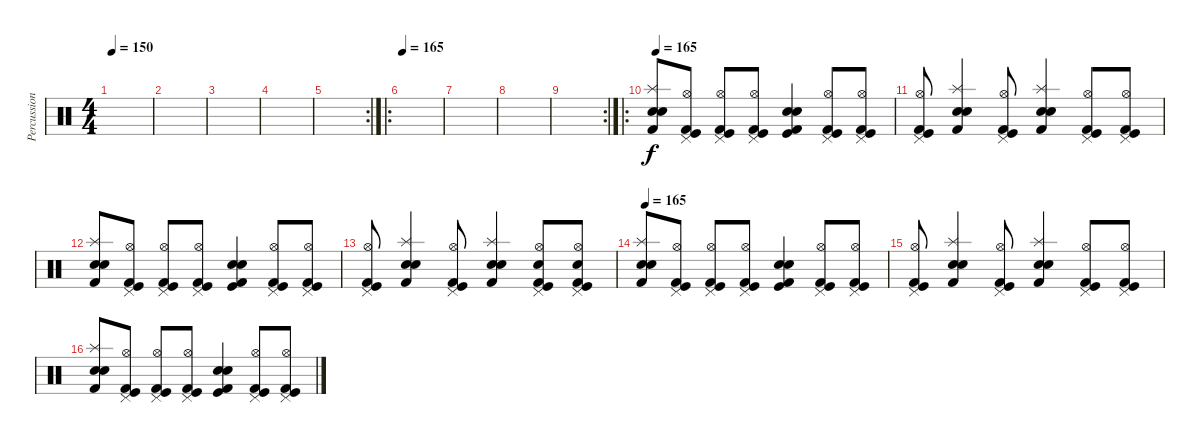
\track ("Percussions" "Percussion") {instrument percussion}
\staff {score}
\articulation defaults
\ts (4 4)
\tempo 150
\clef neutral
\ks c
|
|
|
|
\rc 2
|
\ro
\tempo 165
|
|
|
\rc 2
|
\ro
\tempo 165
("Kick (hit) 2" "Splash (hit)" "Snare (hit) 2" "Electric Snare (hit)").8 ("Hi-Hat (open)" "Pedal Hi-Hat (hit)" "Kick (hit)" "Kick (hit) 2").8 ("Hi-Hat (open)" "Pedal Hi-Hat (hit)" "Kick (hit)" "Kick (hit) 2").8 ("Hi-Hat (open)" "Pedal Hi-Hat (hit)" "Kick (hit)" "Kick (hit) 2").8 ("Kick (hit)" "Electric Snare (hit)" "Snare (hit) 2" "Kick (hit) 2").4 ("Hi-Hat (open)" "Pedal Hi-Hat (hit)" "Kick (hit)" "Kick (hit) 2").8 ("Hi-Hat (open)" "Pedal Hi-Hat (hit)" "Kick (hit) 2" "Kick (hit)").8 |
("Hi-Hat (open)" "Pedal Hi-Hat (hit)" "Kick (hit) 2" "Kick (hit)").8 ("Kick (hit) 2" "Splash (hit)" "Snare (hit) 2" "Electric Snare (hit)").4 ("Hi-Hat (open)" "Pedal Hi-Hat (hit)" "Kick (hit) 2" "Kick (hit)").8 ("Kick (hit) 2" "Splash (hit)" "Snare (hit) 2" "Electric Snare (hit)").4 ("Hi-Hat (open)" "Pedal Hi-Hat (hit)" "Kick (hit) 2" "Kick (hit)").8 ("Hi-Hat (open)" "Pedal Hi-Hat (hit)" "Kick (hit) 2" "Kick (hit)").8 |
("Kick (hit) 2" "Splash (hit)" "Snare (hit) 2" "Electric Snare (hit)").8 ("Hi-Hat (open)" "Pedal Hi-Hat (hit)" "Kick (hit)" "Kick (hit) 2").8 ("Hi-Hat (open)" "Pedal Hi-Hat (hit)" "Kick (hit)" "Kick (hit) 2").8 ("Hi-Hat (open)" "Pedal Hi-Hat (hit)" "Kick (hit)" "Kick (hit) 2").8 ("Kick (hit)" "Electric Snare (hit)" "Snare (hit) 2" "Kick (hit) 2").4 ("Hi-Hat (open)" "Pedal Hi-Hat (hit)" "Kick (hit)" "Kick (hit) 2").8 ("Hi-Hat (open)" "Pedal Hi-Hat (hit)" "Kick (hit) 2" "Kick (hit)").8 |
("Hi-Hat (open)" "Pedal Hi-Hat (hit)" "Kick (hit) 2" "Kick (hit)").8 ("Kick (hit) 2" "Splash (hit)" "Snare (hit) 2" "Electric Snare (hit)").4 ("Hi-Hat (open)" "Pedal Hi-Hat (hit)" "Kick (hit) 2" "Kick (hit)").8 ("Kick (hit) 2" "Splash (hit)" "Snare (hit) 2" "Electric Snare (hit)").4 ("Hi-Hat (open)" "Pedal Hi-Hat (hit)" "Kick (hit) 2" "Kick (hit)" "Electric Snare (hit)").8 ("Hi-Hat (open)" "Pedal Hi-Hat (hit)" "Kick (hit) 2" "Kick (hit)" "Electric Snare (hit)").8 |
\tempo 165
("Kick (hit) 2" "Splash (hit)" "Snare (hit) 2" "Electric Snare (hit)").8 ("Hi-Hat (open)" "Pedal Hi-Hat (hit)" "Kick (hit)" "Kick (hit) 2").8 ("Hi-Hat (open)" "Pedal Hi-Hat (hit)" "Kick (hit)" "Kick (hit) 2").8 ("Hi-Hat (open)" "Pedal Hi-Hat (hit)" "Kick (hit)" "Kick (hit) 2").8 ("Kick (hit)" "Electric Snare (hit)" "Snare (hit) 2" "Kick (hit) 2").4 ("Hi-Hat (open)" "Pedal Hi-Hat (hit)" "Kick (hit)" "Kick (hit) 2").8 ("Hi-Hat (open)" "Pedal Hi-Hat (hit)" "Kick (hit) 2" "Kick (hit)").8 |
("Hi-Hat (open)" "Pedal Hi-Hat (hit)" "Kick (hit) 2" "Kick (hit)").8 ("Kick (hit) 2" "Splash (hit)" "Snare (hit) 2" "Electric Snare (hit)").4 ("Hi-Hat (open)" "Pedal Hi-Hat (hit)" "Kick (hit) 2" "Kick (hit)").8 ("Kick (hit) 2" "Splash (hit)" "Snare (hit) 2" "Electric Snare (hit)").4 ("Hi-Hat (open)" "Pedal Hi-Hat (hit)" "Kick (hit) 2" "Kick (hit)").8 ("Hi-Hat (open)" "Pedal Hi-Hat (hit)" "Kick (hit) 2" "Kick (hit)").8 |
("Kick (hit) 2" "Splash (hit)" "Snare (hit) 2" "Electric Snare (hit)").8 ("Hi-Hat (open)" "Pedal Hi-Hat (hit)" "Kick (hit)" "Kick (hit) 2").8 ("Hi-Hat (open)" "Pedal Hi-Hat (hit)" "Kick (hit)" "Kick (hit) 2").8 ("Hi-Hat (open)" "Pedal Hi-Hat (hit)" "Kick (hit)" "Kick (hit) 2").8 ("Kick (hit)" "Electric Snare (hit)" "Snare (hit) 2" "Kick (hit) 2").4 ("Hi-Hat (open)" "Pedal Hi-Hat (hit)" "Kick (hit)" "Kick (hit) 2").8 ("Hi-Hat (open)" "Pedal Hi-Hat (hit)" "Kick (hit) 2" "Kick (hit)").8
